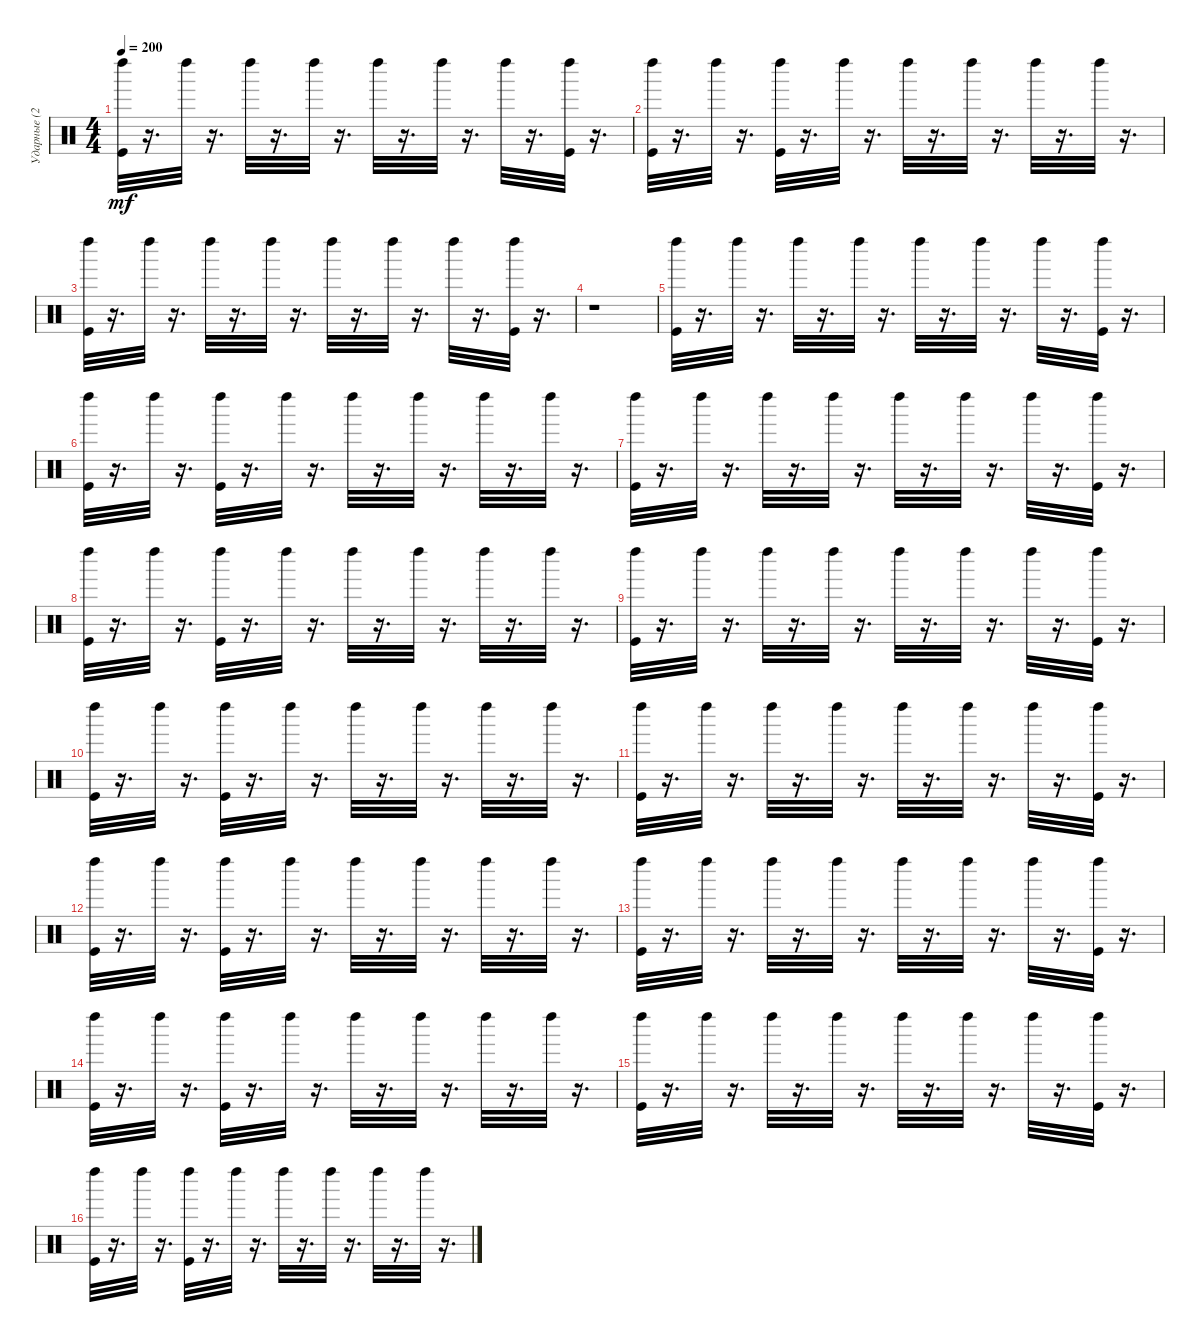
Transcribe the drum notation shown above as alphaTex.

\track ("Ударные (2)" "Ударные (2") {instrument percussion}
\staff {score}
\articulation defaults
\ts (4 4)
\tempo 200
\clef neutral
\ks c
("Kick (hit)" "Left Maraca (hit)").32{dy mf} r.16{d} "Left Maraca (hit)".32 r.16{d} "Left Maraca (hit)".32 r.16{d} "Left Maraca (hit)".32 r.16{d} "Left Maraca (hit)".32 r.16{d} "Left Maraca (hit)".32 r.16{d} "Left Maraca (hit)".32 r.16{d} ("Kick (hit)" "Left Maraca (hit)").32 r.16{d} |
("Kick (hit)" "Left Maraca (hit)").32 r.16{d} "Left Maraca (hit)".32 r.16{d} ("Kick (hit)" "Left Maraca (hit)").32 r.16{d} "Left Maraca (hit)".32 r.16{d} "Left Maraca (hit)".32 r.16{d} "Left Maraca (hit)".32 r.16{d} "Left Maraca (hit)".32 r.16{d} "Left Maraca (hit)".32 r.16{d} |
("Kick (hit)" "Left Maraca (hit)").32 r.16{d} "Left Maraca (hit)".32 r.16{d} "Left Maraca (hit)".32 r.16{d} "Left Maraca (hit)".32 r.16{d} "Left Maraca (hit)".32 r.16{d} "Left Maraca (hit)".32 r.16{d} "Left Maraca (hit)".32 r.16{d} ("Kick (hit)" "Left Maraca (hit)").32 r.16{d} |
r.1 |
("Kick (hit)" "Left Maraca (hit)").32 r.16{d} "Left Maraca (hit)".32 r.16{d} "Left Maraca (hit)".32 r.16{d} "Left Maraca (hit)".32 r.16{d} "Left Maraca (hit)".32 r.16{d} "Left Maraca (hit)".32 r.16{d} "Left Maraca (hit)".32 r.16{d} ("Kick (hit)" "Left Maraca (hit)").32 r.16{d} |
("Kick (hit)" "Left Maraca (hit)").32 r.16{d} "Left Maraca (hit)".32 r.16{d} ("Kick (hit)" "Left Maraca (hit)").32 r.16{d} "Left Maraca (hit)".32 r.16{d} "Left Maraca (hit)".32 r.16{d} "Left Maraca (hit)".32 r.16{d} "Left Maraca (hit)".32 r.16{d} "Left Maraca (hit)".32 r.16{d} |
("Kick (hit)" "Left Maraca (hit)").32 r.16{d} "Left Maraca (hit)".32 r.16{d} "Left Maraca (hit)".32 r.16{d} "Left Maraca (hit)".32 r.16{d} "Left Maraca (hit)".32 r.16{d} "Left Maraca (hit)".32 r.16{d} "Left Maraca (hit)".32 r.16{d} ("Kick (hit)" "Left Maraca (hit)").32 r.16{d} |
("Kick (hit)" "Left Maraca (hit)").32 r.16{d} "Left Maraca (hit)".32 r.16{d} ("Kick (hit)" "Left Maraca (hit)").32 r.16{d} "Left Maraca (hit)".32 r.16{d} "Left Maraca (hit)".32 r.16{d} "Left Maraca (hit)".32 r.16{d} "Left Maraca (hit)".32 r.16{d} "Left Maraca (hit)".32 r.16{d} |
("Kick (hit)" "Left Maraca (hit)").32 r.16{d} "Left Maraca (hit)".32 r.16{d} "Left Maraca (hit)".32 r.16{d} "Left Maraca (hit)".32 r.16{d} "Left Maraca (hit)".32 r.16{d} "Left Maraca (hit)".32 r.16{d} "Left Maraca (hit)".32 r.16{d} ("Kick (hit)" "Left Maraca (hit)").32 r.16{d} |
("Kick (hit)" "Left Maraca (hit)").32 r.16{d} "Left Maraca (hit)".32 r.16{d} ("Kick (hit)" "Left Maraca (hit)").32 r.16{d} "Left Maraca (hit)".32 r.16{d} "Left Maraca (hit)".32 r.16{d} "Left Maraca (hit)".32 r.16{d} "Left Maraca (hit)".32 r.16{d} "Left Maraca (hit)".32 r.16{d} |
("Kick (hit)" "Left Maraca (hit)").32 r.16{d} "Left Maraca (hit)".32 r.16{d} "Left Maraca (hit)".32 r.16{d} "Left Maraca (hit)".32 r.16{d} "Left Maraca (hit)".32 r.16{d} "Left Maraca (hit)".32 r.16{d} "Left Maraca (hit)".32 r.16{d} ("Kick (hit)" "Left Maraca (hit)").32 r.16{d} |
("Kick (hit)" "Left Maraca (hit)").32 r.16{d} "Left Maraca (hit)".32 r.16{d} ("Kick (hit)" "Left Maraca (hit)").32 r.16{d} "Left Maraca (hit)".32 r.16{d} "Left Maraca (hit)".32 r.16{d} "Left Maraca (hit)".32 r.16{d} "Left Maraca (hit)".32 r.16{d} "Left Maraca (hit)".32 r.16{d} |
("Kick (hit)" "Left Maraca (hit)").32 r.16{d} "Left Maraca (hit)".32 r.16{d} "Left Maraca (hit)".32 r.16{d} "Left Maraca (hit)".32 r.16{d} "Left Maraca (hit)".32 r.16{d} "Left Maraca (hit)".32 r.16{d} "Left Maraca (hit)".32 r.16{d} ("Kick (hit)" "Left Maraca (hit)").32 r.16{d} |
("Kick (hit)" "Left Maraca (hit)").32 r.16{d} "Left Maraca (hit)".32 r.16{d} ("Kick (hit)" "Left Maraca (hit)").32 r.16{d} "Left Maraca (hit)".32 r.16{d} "Left Maraca (hit)".32 r.16{d} "Left Maraca (hit)".32 r.16{d} "Left Maraca (hit)".32 r.16{d} "Left Maraca (hit)".32 r.16{d} |
("Kick (hit)" "Left Maraca (hit)").32 r.16{d} "Left Maraca (hit)".32 r.16{d} "Left Maraca (hit)".32 r.16{d} "Left Maraca (hit)".32 r.16{d} "Left Maraca (hit)".32 r.16{d} "Left Maraca (hit)".32 r.16{d} "Left Maraca (hit)".32 r.16{d} ("Kick (hit)" "Left Maraca (hit)").32 r.16{d} |
("Kick (hit)" "Left Maraca (hit)").32 r.16{d} "Left Maraca (hit)".32 r.16{d} ("Kick (hit)" "Left Maraca (hit)").32 r.16{d} "Left Maraca (hit)".32 r.16{d} "Left Maraca (hit)".32 r.16{d} "Left Maraca (hit)".32 r.16{d} "Left Maraca (hit)".32 r.16{d} "Left Maraca (hit)".32 r.16{d}
